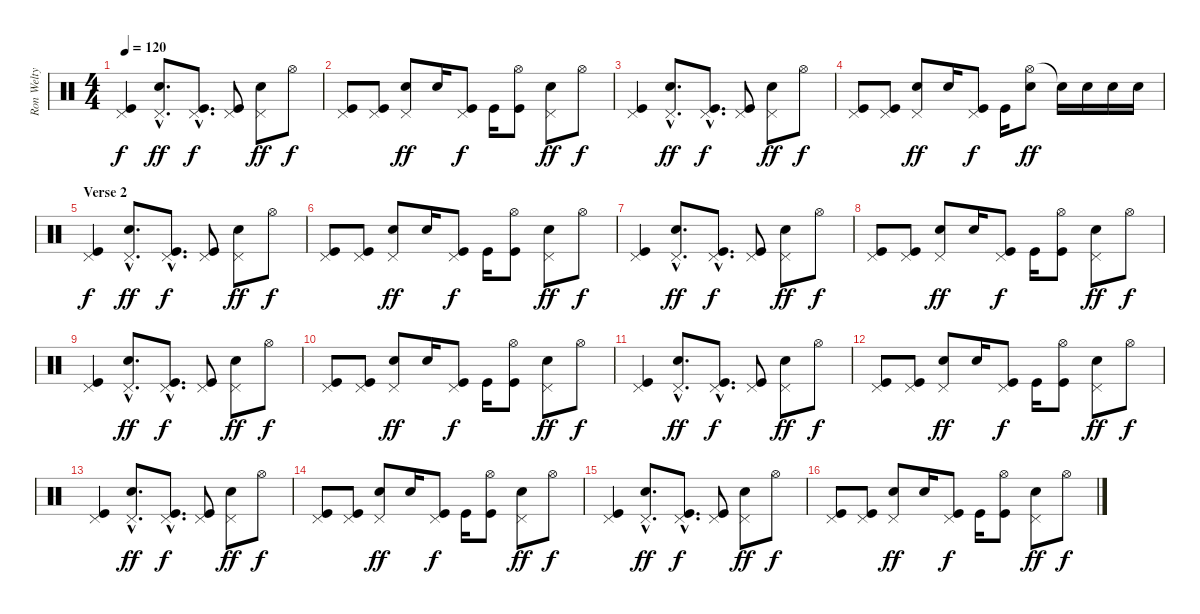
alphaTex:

\track ("Ron Welty" "Ron Welty") {instrument percussion}
\staff {score}
\articulation defaults
\ts (4 4)
\tempo 120
\clef neutral
\ks c
("Pedal Hi-Hat (hit)" "Kick (hit)").4{dy f} ("Pedal Hi-Hat (hit)"{hac} "Snare (hit) 2"{hac}).8{d dy ff} ("Pedal Hi-Hat (hit)"{hac} "Kick (hit)"{hac}).8{d dy f} ("Pedal Hi-Hat (hit)" "Kick (hit)").8 ("Pedal Hi-Hat (hit)" "Snare (hit) 2").8{dy ff} "Hi-Hat (open)".8{dy f} |
("Pedal Hi-Hat (hit)" "Kick (hit)").8 ("Pedal Hi-Hat (hit)" "Kick (hit)").8 ("Pedal Hi-Hat (hit)" "Snare (hit) 2").8{dy ff} "Snare (hit) 2".16 ("Pedal Hi-Hat (hit)" "Kick (hit)").8{dy f} "Kick (hit)".16 ("Hi-Hat (open)" "Kick (hit)").8 ("Pedal Hi-Hat (hit)" "Snare (hit) 2").8{dy ff} "Hi-Hat (open)".8{dy f} |
("Pedal Hi-Hat (hit)" "Kick (hit)").4 ("Pedal Hi-Hat (hit)"{hac} "Snare (hit) 2"{hac}).8{d dy ff} ("Pedal Hi-Hat (hit)"{hac} "Kick (hit)"{hac}).8{d dy f} ("Pedal Hi-Hat (hit)" "Kick (hit)").8 ("Pedal Hi-Hat (hit)" "Snare (hit) 2").8{dy ff} "Hi-Hat (open)".8{dy f} |
("Pedal Hi-Hat (hit)" "Kick (hit)").8 ("Pedal Hi-Hat (hit)" "Kick (hit)").8 ("Pedal Hi-Hat (hit)" "Snare (hit) 2").8{dy ff} "Snare (hit) 2".16 ("Pedal Hi-Hat (hit)" "Kick (hit)").8{dy f} "Kick (hit)".16 ("Hi-Hat (open)" "Snare (hit) 2").8{dy ff} "Snare (hit) 2"{t}.16 "Snare (hit) 2".16 "Snare (hit) 2".16 "Snare (hit) 2".16 |
\section ("" "Verse 2")
("Pedal Hi-Hat (hit)" "Kick (hit)").4{dy f} ("Pedal Hi-Hat (hit)"{hac} "Snare (hit) 2"{hac}).8{d dy ff} ("Pedal Hi-Hat (hit)"{hac} "Kick (hit)"{hac}).8{d dy f} ("Pedal Hi-Hat (hit)" "Kick (hit)").8 ("Pedal Hi-Hat (hit)" "Snare (hit) 2").8{dy ff} "Hi-Hat (open)".8{dy f} |
("Pedal Hi-Hat (hit)" "Kick (hit)").8 ("Pedal Hi-Hat (hit)" "Kick (hit)").8 ("Pedal Hi-Hat (hit)" "Snare (hit) 2").8{dy ff} "Snare (hit) 2".16 ("Pedal Hi-Hat (hit)" "Kick (hit)").8{dy f} "Kick (hit)".16 ("Hi-Hat (open)" "Kick (hit)").8 ("Pedal Hi-Hat (hit)" "Snare (hit) 2").8{dy ff} "Hi-Hat (open)".8{dy f} |
("Pedal Hi-Hat (hit)" "Kick (hit)").4 ("Pedal Hi-Hat (hit)"{hac} "Snare (hit) 2"{hac}).8{d dy ff} ("Pedal Hi-Hat (hit)"{hac} "Kick (hit)"{hac}).8{d dy f} ("Pedal Hi-Hat (hit)" "Kick (hit)").8 ("Pedal Hi-Hat (hit)" "Snare (hit) 2").8{dy ff} "Hi-Hat (open)".8{dy f} |
("Pedal Hi-Hat (hit)" "Kick (hit)").8 ("Pedal Hi-Hat (hit)" "Kick (hit)").8 ("Pedal Hi-Hat (hit)" "Snare (hit) 2").8{dy ff} "Snare (hit) 2".16 ("Pedal Hi-Hat (hit)" "Kick (hit)").8{dy f} "Kick (hit)".16 ("Hi-Hat (open)" "Kick (hit)").8 ("Pedal Hi-Hat (hit)" "Snare (hit) 2").8{dy ff} "Hi-Hat (open)".8{dy f} |
("Pedal Hi-Hat (hit)" "Kick (hit)").4 ("Pedal Hi-Hat (hit)"{hac} "Snare (hit) 2"{hac}).8{d dy ff} ("Pedal Hi-Hat (hit)"{hac} "Kick (hit)"{hac}).8{d dy f} ("Pedal Hi-Hat (hit)" "Kick (hit)").8 ("Pedal Hi-Hat (hit)" "Snare (hit) 2").8{dy ff} "Hi-Hat (open)".8{dy f} |
("Pedal Hi-Hat (hit)" "Kick (hit)").8 ("Pedal Hi-Hat (hit)" "Kick (hit)").8 ("Pedal Hi-Hat (hit)" "Snare (hit) 2").8{dy ff} "Snare (hit) 2".16 ("Pedal Hi-Hat (hit)" "Kick (hit)").8{dy f} "Kick (hit)".16 ("Hi-Hat (open)" "Kick (hit)").8 ("Pedal Hi-Hat (hit)" "Snare (hit) 2").8{dy ff} "Hi-Hat (open)".8{dy f} |
("Pedal Hi-Hat (hit)" "Kick (hit)").4 ("Pedal Hi-Hat (hit)"{hac} "Snare (hit) 2"{hac}).8{d dy ff} ("Pedal Hi-Hat (hit)"{hac} "Kick (hit)"{hac}).8{d dy f} ("Pedal Hi-Hat (hit)" "Kick (hit)").8 ("Pedal Hi-Hat (hit)" "Snare (hit) 2").8{dy ff} "Hi-Hat (open)".8{dy f} |
("Pedal Hi-Hat (hit)" "Kick (hit)").8 ("Pedal Hi-Hat (hit)" "Kick (hit)").8 ("Pedal Hi-Hat (hit)" "Snare (hit) 2").8{dy ff} "Snare (hit) 2".16 ("Pedal Hi-Hat (hit)" "Kick (hit)").8{dy f} "Kick (hit)".16 ("Hi-Hat (open)" "Kick (hit)").8 ("Pedal Hi-Hat (hit)" "Snare (hit) 2").8{dy ff} "Hi-Hat (open)".8{dy f} |
("Pedal Hi-Hat (hit)" "Kick (hit)").4 ("Pedal Hi-Hat (hit)"{hac} "Snare (hit) 2"{hac}).8{d dy ff} ("Pedal Hi-Hat (hit)"{hac} "Kick (hit)"{hac}).8{d dy f} ("Pedal Hi-Hat (hit)" "Kick (hit)").8 ("Pedal Hi-Hat (hit)" "Snare (hit) 2").8{dy ff} "Hi-Hat (open)".8{dy f} |
("Pedal Hi-Hat (hit)" "Kick (hit)").8 ("Pedal Hi-Hat (hit)" "Kick (hit)").8 ("Pedal Hi-Hat (hit)" "Snare (hit) 2").8{dy ff} "Snare (hit) 2".16 ("Pedal Hi-Hat (hit)" "Kick (hit)").8{dy f} "Kick (hit)".16 ("Hi-Hat (open)" "Kick (hit)").8 ("Pedal Hi-Hat (hit)" "Snare (hit) 2").8{dy ff} "Hi-Hat (open)".8{dy f} |
("Pedal Hi-Hat (hit)" "Kick (hit)").4 ("Pedal Hi-Hat (hit)"{hac} "Snare (hit) 2"{hac}).8{d dy ff} ("Pedal Hi-Hat (hit)"{hac} "Kick (hit)"{hac}).8{d dy f} ("Pedal Hi-Hat (hit)" "Kick (hit)").8 ("Pedal Hi-Hat (hit)" "Snare (hit) 2").8{dy ff} "Hi-Hat (open)".8{dy f} |
("Pedal Hi-Hat (hit)" "Kick (hit)").8 ("Pedal Hi-Hat (hit)" "Kick (hit)").8 ("Pedal Hi-Hat (hit)" "Snare (hit) 2").8{dy ff} "Snare (hit) 2".16 ("Pedal Hi-Hat (hit)" "Kick (hit)").8{dy f} "Kick (hit)".16 ("Hi-Hat (open)" "Kick (hit)").8 ("Pedal Hi-Hat (hit)" "Snare (hit) 2").8{dy ff} "Hi-Hat (open)".8{dy f}
